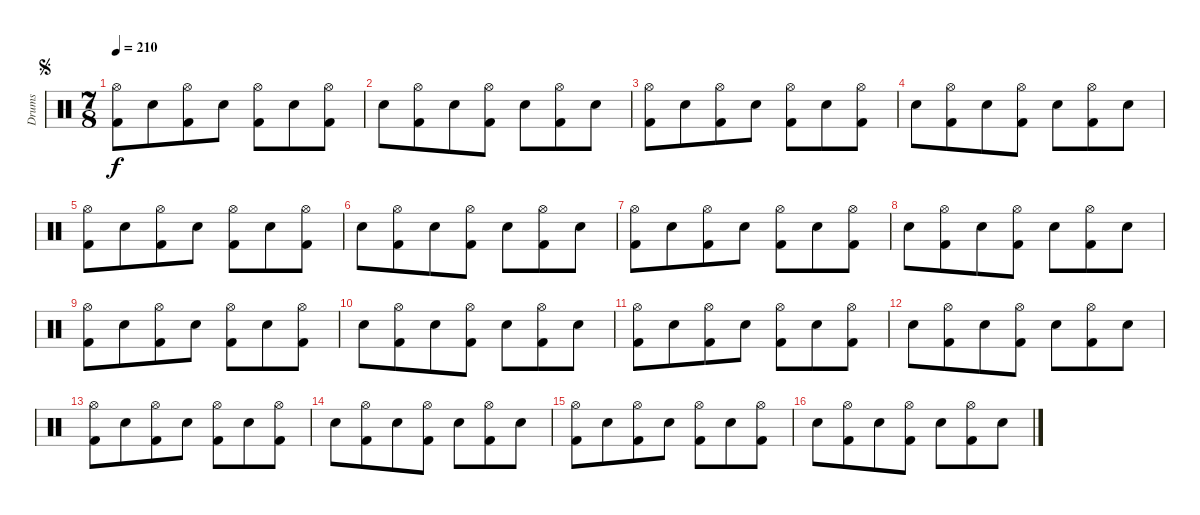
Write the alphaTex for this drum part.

\track ("Drums" "Drums") {instrument percussion}
\staff {score}
\articulation defaults
\ts (7 8)
\jump segno
\tempo 210
\clef neutral
\ks c
("Hi-Hat (open)" "Kick (hit) 2").8{dy f} "Electric Snare (hit)".8 ("Hi-Hat (open)" "Kick (hit) 2").8 "Electric Snare (hit)".8 ("Hi-Hat (open)" "Kick (hit) 2").8 "Electric Snare (hit)".8 ("Hi-Hat (open)" "Kick (hit) 2").8 |
"Electric Snare (hit)".8 ("Hi-Hat (open)" "Kick (hit) 2").8 "Electric Snare (hit)".8 ("Hi-Hat (open)" "Kick (hit) 2").8 "Electric Snare (hit)".8 ("Hi-Hat (open)" "Kick (hit) 2").8 "Electric Snare (hit)".8 |
("Hi-Hat (open)" "Kick (hit) 2").8 "Electric Snare (hit)".8 ("Hi-Hat (open)" "Kick (hit) 2").8 "Electric Snare (hit)".8 ("Hi-Hat (open)" "Kick (hit) 2").8 "Electric Snare (hit)".8 ("Hi-Hat (open)" "Kick (hit) 2").8 |
"Electric Snare (hit)".8 ("Hi-Hat (open)" "Kick (hit) 2").8 "Electric Snare (hit)".8 ("Hi-Hat (open)" "Kick (hit) 2").8 "Electric Snare (hit)".8 ("Hi-Hat (open)" "Kick (hit) 2").8 "Electric Snare (hit)".8 |
("Hi-Hat (open)" "Kick (hit) 2").8 "Electric Snare (hit)".8 ("Hi-Hat (open)" "Kick (hit) 2").8 "Electric Snare (hit)".8 ("Hi-Hat (open)" "Kick (hit) 2").8 "Electric Snare (hit)".8 ("Hi-Hat (open)" "Kick (hit) 2").8 |
"Electric Snare (hit)".8 ("Hi-Hat (open)" "Kick (hit) 2").8 "Electric Snare (hit)".8 ("Hi-Hat (open)" "Kick (hit) 2").8 "Electric Snare (hit)".8 ("Hi-Hat (open)" "Kick (hit) 2").8 "Electric Snare (hit)".8 |
("Hi-Hat (open)" "Kick (hit) 2").8 "Electric Snare (hit)".8 ("Hi-Hat (open)" "Kick (hit) 2").8 "Electric Snare (hit)".8 ("Hi-Hat (open)" "Kick (hit) 2").8 "Electric Snare (hit)".8 ("Hi-Hat (open)" "Kick (hit) 2").8 |
"Electric Snare (hit)".8 ("Hi-Hat (open)" "Kick (hit) 2").8 "Electric Snare (hit)".8 ("Hi-Hat (open)" "Kick (hit) 2").8 "Electric Snare (hit)".8 ("Hi-Hat (open)" "Kick (hit) 2").8 "Electric Snare (hit)".8 |
("Hi-Hat (open)" "Kick (hit) 2").8 "Electric Snare (hit)".8 ("Hi-Hat (open)" "Kick (hit) 2").8 "Electric Snare (hit)".8 ("Hi-Hat (open)" "Kick (hit) 2").8 "Electric Snare (hit)".8 ("Hi-Hat (open)" "Kick (hit) 2").8 |
"Electric Snare (hit)".8 ("Hi-Hat (open)" "Kick (hit) 2").8 "Electric Snare (hit)".8 ("Hi-Hat (open)" "Kick (hit) 2").8 "Electric Snare (hit)".8 ("Hi-Hat (open)" "Kick (hit) 2").8 "Electric Snare (hit)".8 |
("Hi-Hat (open)" "Kick (hit) 2").8 "Electric Snare (hit)".8 ("Hi-Hat (open)" "Kick (hit) 2").8 "Electric Snare (hit)".8 ("Hi-Hat (open)" "Kick (hit) 2").8 "Electric Snare (hit)".8 ("Hi-Hat (open)" "Kick (hit) 2").8 |
"Electric Snare (hit)".8 ("Hi-Hat (open)" "Kick (hit) 2").8 "Electric Snare (hit)".8 ("Hi-Hat (open)" "Kick (hit) 2").8 "Electric Snare (hit)".8 ("Hi-Hat (open)" "Kick (hit) 2").8 "Electric Snare (hit)".8 |
("Hi-Hat (open)" "Kick (hit) 2").8 "Electric Snare (hit)".8 ("Hi-Hat (open)" "Kick (hit) 2").8 "Electric Snare (hit)".8 ("Hi-Hat (open)" "Kick (hit) 2").8 "Electric Snare (hit)".8 ("Hi-Hat (open)" "Kick (hit) 2").8 |
"Electric Snare (hit)".8 ("Hi-Hat (open)" "Kick (hit) 2").8 "Electric Snare (hit)".8 ("Hi-Hat (open)" "Kick (hit) 2").8 "Electric Snare (hit)".8 ("Hi-Hat (open)" "Kick (hit) 2").8 "Electric Snare (hit)".8 |
("Hi-Hat (open)" "Kick (hit) 2").8 "Electric Snare (hit)".8 ("Hi-Hat (open)" "Kick (hit) 2").8 "Electric Snare (hit)".8 ("Hi-Hat (open)" "Kick (hit) 2").8 "Electric Snare (hit)".8 ("Hi-Hat (open)" "Kick (hit) 2").8 |
"Electric Snare (hit)".8 ("Hi-Hat (open)" "Kick (hit) 2").8 "Electric Snare (hit)".8 ("Hi-Hat (open)" "Kick (hit) 2").8 "Electric Snare (hit)".8 ("Hi-Hat (open)" "Kick (hit) 2").8 "Electric Snare (hit)".8
